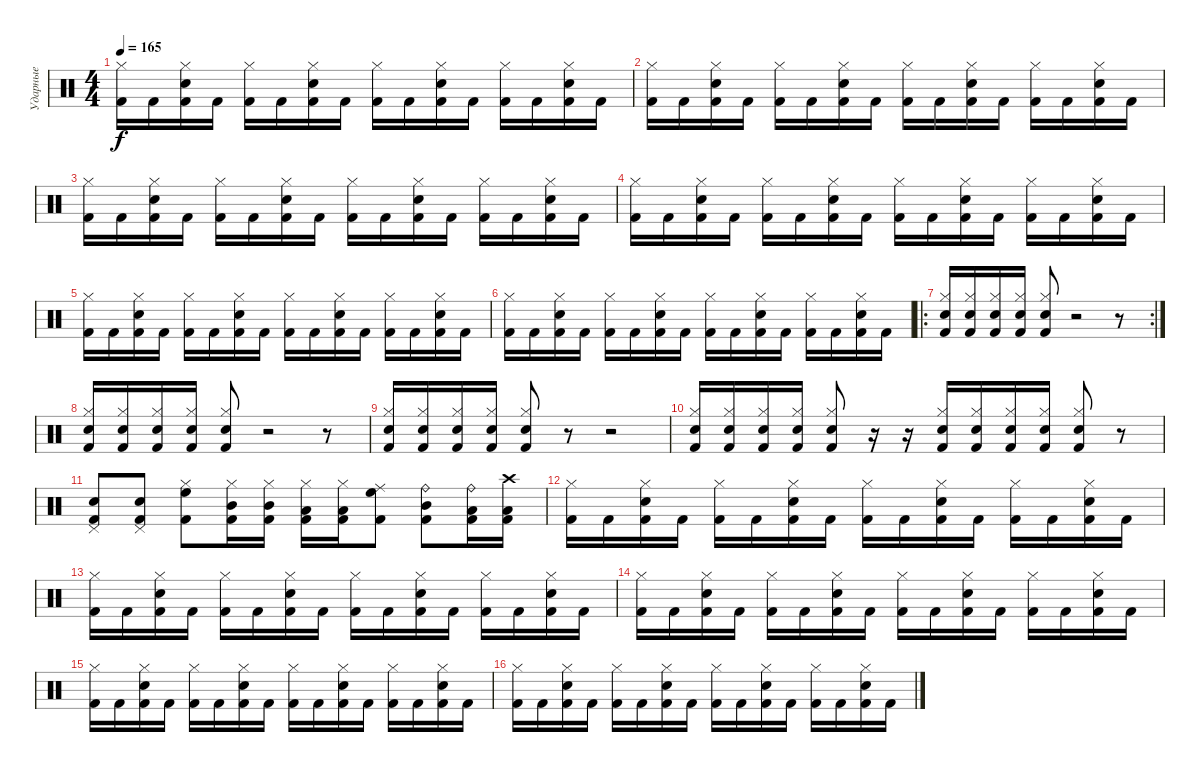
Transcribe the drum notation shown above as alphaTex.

\track ("Ударные" "Ударные") {instrument percussion}
\staff
\articulation defaults
\ts (4 4)
\tempo 165
\clef neutral
\ks c
("Kick (hit) 2" "Hi-Hat (closed)").16{dy f} "Kick (hit) 2".16 ("Kick (hit) 2" "Snare (hit) 2" "Hi-Hat (closed)").16 "Kick (hit) 2".16 ("Kick (hit) 2" "Hi-Hat (closed)").16 "Kick (hit) 2".16 ("Kick (hit) 2" "Snare (hit) 2" "Hi-Hat (closed)").16 "Kick (hit) 2".16 ("Kick (hit) 2" "Hi-Hat (closed)").16 "Kick (hit) 2".16 ("Kick (hit) 2" "Snare (hit) 2" "Hi-Hat (closed)").16 "Kick (hit) 2".16 ("Kick (hit) 2" "Hi-Hat (closed)").16 "Kick (hit) 2".16 ("Kick (hit) 2" "Snare (hit) 2" "Hi-Hat (closed)").16 "Kick (hit) 2".16 |
("Kick (hit) 2" "Hi-Hat (closed)").16 "Kick (hit) 2".16 ("Kick (hit) 2" "Snare (hit) 2" "Hi-Hat (closed)").16 "Kick (hit) 2".16 ("Kick (hit) 2" "Hi-Hat (closed)").16 "Kick (hit) 2".16 ("Kick (hit) 2" "Snare (hit) 2" "Hi-Hat (closed)").16 "Kick (hit) 2".16 ("Kick (hit) 2" "Hi-Hat (closed)").16 "Kick (hit) 2".16 ("Kick (hit) 2" "Snare (hit) 2" "Hi-Hat (closed)").16 "Kick (hit) 2".16 ("Kick (hit) 2" "Hi-Hat (closed)").16 "Kick (hit) 2".16 ("Kick (hit) 2" "Snare (hit) 2" "Hi-Hat (closed)").16 "Kick (hit) 2".16 |
("Kick (hit) 2" "Hi-Hat (closed)").16 "Kick (hit) 2".16 ("Kick (hit) 2" "Snare (hit) 2" "Hi-Hat (closed)").16 "Kick (hit) 2".16 ("Kick (hit) 2" "Hi-Hat (closed)").16 "Kick (hit) 2".16 ("Kick (hit) 2" "Snare (hit) 2" "Hi-Hat (closed)").16 "Kick (hit) 2".16 ("Kick (hit) 2" "Hi-Hat (closed)").16 "Kick (hit) 2".16 ("Kick (hit) 2" "Snare (hit) 2" "Hi-Hat (closed)").16 "Kick (hit) 2".16 ("Kick (hit) 2" "Hi-Hat (closed)").16 "Kick (hit) 2".16 ("Kick (hit) 2" "Snare (hit) 2" "Hi-Hat (closed)").16 "Kick (hit) 2".16 |
("Kick (hit) 2" "Hi-Hat (closed)").16 "Kick (hit) 2".16 ("Kick (hit) 2" "Snare (hit) 2" "Hi-Hat (closed)").16 "Kick (hit) 2".16 ("Kick (hit) 2" "Hi-Hat (closed)").16 "Kick (hit) 2".16 ("Kick (hit) 2" "Snare (hit) 2" "Hi-Hat (closed)").16 "Kick (hit) 2".16 ("Kick (hit) 2" "Hi-Hat (closed)").16 "Kick (hit) 2".16 ("Kick (hit) 2" "Snare (hit) 2" "Hi-Hat (closed)").16 "Kick (hit) 2".16 ("Kick (hit) 2" "Hi-Hat (closed)").16 "Kick (hit) 2".16 ("Kick (hit) 2" "Snare (hit) 2" "Hi-Hat (closed)").16 "Kick (hit) 2".16 |
("Kick (hit) 2" "Hi-Hat (closed)").16 "Kick (hit) 2".16 ("Kick (hit) 2" "Snare (hit) 2" "Hi-Hat (closed)").16 "Kick (hit) 2".16 ("Kick (hit) 2" "Hi-Hat (closed)").16 "Kick (hit) 2".16 ("Kick (hit) 2" "Snare (hit) 2" "Hi-Hat (closed)").16 "Kick (hit) 2".16 ("Kick (hit) 2" "Hi-Hat (closed)").16 "Kick (hit) 2".16 ("Kick (hit) 2" "Snare (hit) 2" "Hi-Hat (closed)").16 "Kick (hit) 2".16 ("Kick (hit) 2" "Hi-Hat (closed)").16 "Kick (hit) 2".16 ("Kick (hit) 2" "Snare (hit) 2" "Hi-Hat (closed)").16 "Kick (hit) 2".16 |
("Kick (hit) 2" "Hi-Hat (closed)").16 "Kick (hit) 2".16 ("Kick (hit) 2" "Snare (hit) 2" "Hi-Hat (closed)").16 "Kick (hit) 2".16 ("Kick (hit) 2" "Hi-Hat (closed)").16 "Kick (hit) 2".16 ("Kick (hit) 2" "Snare (hit) 2" "Hi-Hat (closed)").16 "Kick (hit) 2".16 ("Kick (hit) 2" "Hi-Hat (closed)").16 "Kick (hit) 2".16 ("Kick (hit) 2" "Snare (hit) 2" "Hi-Hat (closed)").16 "Kick (hit) 2".16 ("Kick (hit) 2" "Hi-Hat (closed)").16 "Kick (hit) 2".16 ("Kick (hit) 2" "Snare (hit) 2" "Hi-Hat (closed)").16 "Kick (hit) 2".16 |
\ro
\rc 2
("Kick (hit) 2" "Snare (hit) 2" "Hi-Hat (closed)").16 ("Kick (hit) 2" "Snare (hit) 2" "Hi-Hat (closed)").16 ("Kick (hit) 2" "Snare (hit) 2" "Hi-Hat (closed)").16 ("Kick (hit) 2" "Snare (hit) 2" "Hi-Hat (closed)").16 ("Kick (hit) 2" "Snare (hit) 2" "Hi-Hat (closed)").8 r.2 r.8 |
("Kick (hit) 2" "Snare (hit) 2" "Hi-Hat (closed)").16 ("Kick (hit) 2" "Snare (hit) 2" "Hi-Hat (closed)").16 ("Kick (hit) 2" "Snare (hit) 2" "Hi-Hat (closed)").16 ("Kick (hit) 2" "Snare (hit) 2" "Hi-Hat (closed)").16 ("Kick (hit) 2" "Snare (hit) 2" "Hi-Hat (closed)").8 r.2 r.8 |
("Kick (hit) 2" "Snare (hit) 2" "Hi-Hat (closed)").16 ("Kick (hit) 2" "Snare (hit) 2" "Hi-Hat (closed)").16 ("Kick (hit) 2" "Snare (hit) 2" "Hi-Hat (closed)").16 ("Kick (hit) 2" "Snare (hit) 2" "Hi-Hat (closed)").16 ("Kick (hit) 2" "Snare (hit) 2" "Hi-Hat (closed)").8 r.8 r.2 |
("Kick (hit) 2" "Snare (hit) 2" "Hi-Hat (closed)").16 ("Kick (hit) 2" "Snare (hit) 2" "Hi-Hat (closed)").16 ("Kick (hit) 2" "Snare (hit) 2" "Hi-Hat (closed)").16 ("Kick (hit) 2" "Snare (hit) 2" "Hi-Hat (closed)").16 ("Kick (hit) 2" "Snare (hit) 2" "Hi-Hat (closed)").8 r.16 r.16 ("Kick (hit) 2" "Snare (hit) 2" "Hi-Hat (closed)").16 ("Kick (hit) 2" "Snare (hit) 2" "Hi-Hat (closed)").16 ("Kick (hit) 2" "Snare (hit) 2" "Hi-Hat (closed)").16 ("Kick (hit) 2" "Snare (hit) 2" "Hi-Hat (closed)").16 ("Kick (hit) 2" "Snare (hit) 2" "Hi-Hat (closed)").8 r.8 |
("Kick (hit) 2" "Snare (hit) 2" "Pedal Hi-Hat (hit)").8 ("Kick (hit) 2" "Snare (hit) 2" "Pedal Hi-Hat (hit)").8 ("Kick (hit) 2" "High Floor Tom (hit)" "Hi-Hat (closed)").8 ("Kick (hit) 2" "Mid Tom (hit)" "Hi-Hat (closed)").16 ("Kick (hit) 2" "Mid Tom (hit)" "Hi-Hat (closed)").16 ("Kick (hit) 2" "Low Tom (hit)" "Hi-Hat (closed)").16 ("Kick (hit) 2" "Low Floor Tom (hit)" "Hi-Hat (closed)").16 ("Kick (hit) 2" "High Floor Tom (hit)" "Ride (middle)").8 ("Kick (hit) 2" "Mid Tom (hit)" "Ride (bell)").8 ("Kick (hit) 2" "Low Tom (hit)" "Ride (bell)").16 ("Kick (hit) 2" "Low Floor Tom (hit)" "Crash high (hit)").16 |
("Kick (hit) 2" "Hi-Hat (closed)").16 "Kick (hit) 2".16 ("Kick (hit) 2" "Snare (hit) 2" "Hi-Hat (closed)").16 "Kick (hit) 2".16 ("Kick (hit) 2" "Hi-Hat (closed)").16 "Kick (hit) 2".16 ("Kick (hit) 2" "Snare (hit) 2" "Hi-Hat (closed)").16 "Kick (hit) 2".16 ("Kick (hit) 2" "Hi-Hat (closed)").16 "Kick (hit) 2".16 ("Kick (hit) 2" "Snare (hit) 2" "Hi-Hat (closed)").16 "Kick (hit) 2".16 ("Kick (hit) 2" "Hi-Hat (closed)").16 "Kick (hit) 2".16 ("Kick (hit) 2" "Snare (hit) 2" "Hi-Hat (closed)").16 "Kick (hit) 2".16 |
("Kick (hit) 2" "Hi-Hat (closed)").16 "Kick (hit) 2".16 ("Kick (hit) 2" "Snare (hit) 2" "Hi-Hat (closed)").16 "Kick (hit) 2".16 ("Kick (hit) 2" "Hi-Hat (closed)").16 "Kick (hit) 2".16 ("Kick (hit) 2" "Snare (hit) 2" "Hi-Hat (closed)").16 "Kick (hit) 2".16 ("Kick (hit) 2" "Hi-Hat (closed)").16 "Kick (hit) 2".16 ("Kick (hit) 2" "Snare (hit) 2" "Hi-Hat (closed)").16 "Kick (hit) 2".16 ("Kick (hit) 2" "Hi-Hat (closed)").16 "Kick (hit) 2".16 ("Kick (hit) 2" "Snare (hit) 2" "Hi-Hat (closed)").16 "Kick (hit) 2".16 |
("Kick (hit) 2" "Hi-Hat (closed)").16 "Kick (hit) 2".16 ("Kick (hit) 2" "Snare (hit) 2" "Hi-Hat (closed)").16 "Kick (hit) 2".16 ("Kick (hit) 2" "Hi-Hat (closed)").16 "Kick (hit) 2".16 ("Kick (hit) 2" "Snare (hit) 2" "Hi-Hat (closed)").16 "Kick (hit) 2".16 ("Kick (hit) 2" "Hi-Hat (closed)").16 "Kick (hit) 2".16 ("Kick (hit) 2" "Snare (hit) 2" "Hi-Hat (closed)").16 "Kick (hit) 2".16 ("Kick (hit) 2" "Hi-Hat (closed)").16 "Kick (hit) 2".16 ("Kick (hit) 2" "Snare (hit) 2" "Hi-Hat (closed)").16 "Kick (hit) 2".16 |
("Kick (hit) 2" "Hi-Hat (closed)").16 "Kick (hit) 2".16 ("Kick (hit) 2" "Snare (hit) 2" "Hi-Hat (closed)").16 "Kick (hit) 2".16 ("Kick (hit) 2" "Hi-Hat (closed)").16 "Kick (hit) 2".16 ("Kick (hit) 2" "Snare (hit) 2" "Hi-Hat (closed)").16 "Kick (hit) 2".16 ("Kick (hit) 2" "Hi-Hat (closed)").16 "Kick (hit) 2".16 ("Kick (hit) 2" "Snare (hit) 2" "Hi-Hat (closed)").16 "Kick (hit) 2".16 ("Kick (hit) 2" "Hi-Hat (closed)").16 "Kick (hit) 2".16 ("Kick (hit) 2" "Snare (hit) 2" "Hi-Hat (closed)").16 "Kick (hit) 2".16 |
("Kick (hit) 2" "Hi-Hat (closed)").16 "Kick (hit) 2".16 ("Kick (hit) 2" "Snare (hit) 2" "Hi-Hat (closed)").16 "Kick (hit) 2".16 ("Kick (hit) 2" "Hi-Hat (closed)").16 "Kick (hit) 2".16 ("Kick (hit) 2" "Snare (hit) 2" "Hi-Hat (closed)").16 "Kick (hit) 2".16 ("Kick (hit) 2" "Hi-Hat (closed)").16 "Kick (hit) 2".16 ("Kick (hit) 2" "Snare (hit) 2" "Hi-Hat (closed)").16 "Kick (hit) 2".16 ("Kick (hit) 2" "Hi-Hat (closed)").16 "Kick (hit) 2".16 ("Kick (hit) 2" "Snare (hit) 2" "Hi-Hat (closed)").16 "Kick (hit) 2".16
